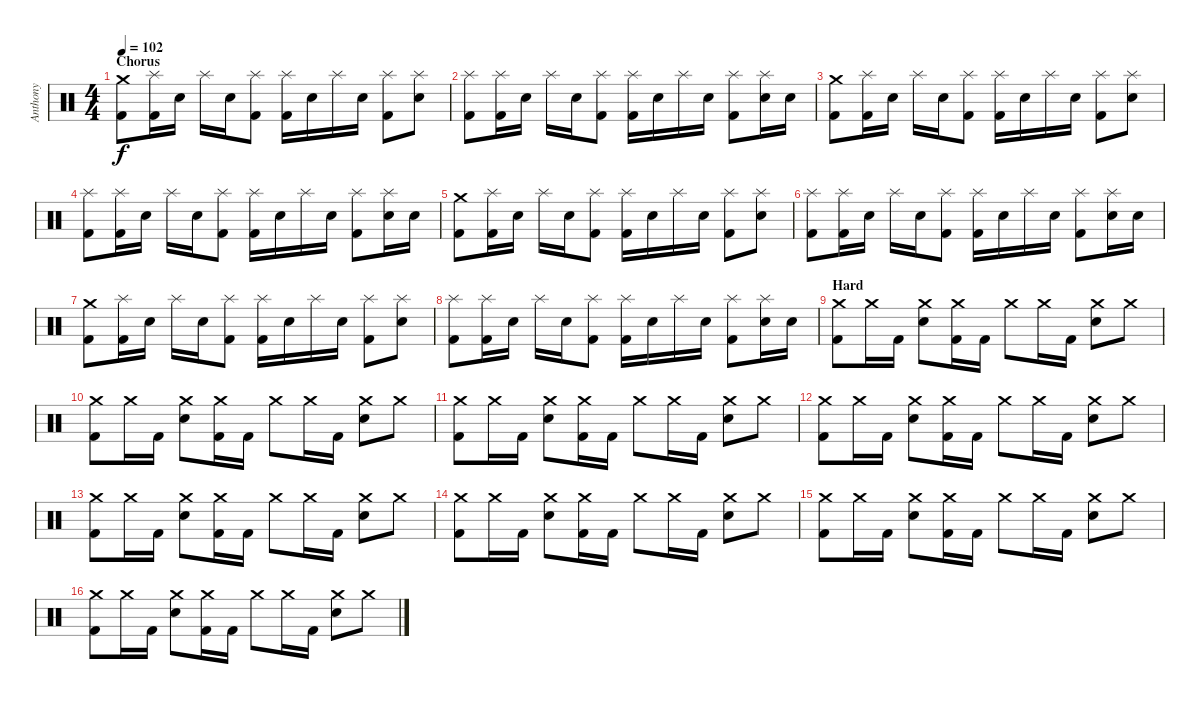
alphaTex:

\track ("Anthony" "Anthony") {instrument percussion}
\staff {score}
\articulation defaults
\ts (4 4)
\section ("" "Chorus")
\tempo 102
\clef neutral
\ks c
("Crash medium (hit)" "Kick (hit) 2").8{dy f} ("Splash (hit)" "Kick (hit) 2").16 "Electric Snare (hit)".16 "Splash (hit)".16 "Electric Snare (hit)".16 ("Splash (hit)" "Kick (hit) 2").8 ("Splash (hit)" "Kick (hit) 2").16 "Electric Snare (hit)".16 "Splash (hit)".16 "Electric Snare (hit)".16 ("Splash (hit)" "Kick (hit) 2").8 ("Splash (hit)" "Electric Snare (hit)").8 |
("Splash (hit)" "Kick (hit) 2").8 ("Splash (hit)" "Kick (hit) 2").16 "Electric Snare (hit)".16 "Splash (hit)".16 "Electric Snare (hit)".16 ("Splash (hit)" "Kick (hit) 2").8 ("Splash (hit)" "Kick (hit) 2").16 "Electric Snare (hit)".16 "Splash (hit)".16 "Electric Snare (hit)".16 ("Splash (hit)" "Kick (hit) 2").8 ("Splash (hit)" "Electric Snare (hit)").16 "Electric Snare (hit)".16 |
("Crash medium (hit)" "Kick (hit) 2").8 ("Splash (hit)" "Kick (hit) 2").16 "Electric Snare (hit)".16 "Splash (hit)".16 "Electric Snare (hit)".16 ("Splash (hit)" "Kick (hit) 2").8 ("Splash (hit)" "Kick (hit) 2").16 "Electric Snare (hit)".16 "Splash (hit)".16 "Electric Snare (hit)".16 ("Splash (hit)" "Kick (hit) 2").8 ("Splash (hit)" "Electric Snare (hit)").8 |
("Splash (hit)" "Kick (hit) 2").8 ("Splash (hit)" "Kick (hit) 2").16 "Electric Snare (hit)".16 "Splash (hit)".16 "Electric Snare (hit)".16 ("Splash (hit)" "Kick (hit) 2").8 ("Splash (hit)" "Kick (hit) 2").16 "Electric Snare (hit)".16 "Splash (hit)".16 "Electric Snare (hit)".16 ("Splash (hit)" "Kick (hit) 2").8 ("Splash (hit)" "Electric Snare (hit)").16 "Electric Snare (hit)".16 |
("Crash medium (hit)" "Kick (hit) 2").8 ("Splash (hit)" "Kick (hit) 2").16 "Electric Snare (hit)".16 "Splash (hit)".16 "Electric Snare (hit)".16 ("Splash (hit)" "Kick (hit) 2").8 ("Splash (hit)" "Kick (hit) 2").16 "Electric Snare (hit)".16 "Splash (hit)".16 "Electric Snare (hit)".16 ("Splash (hit)" "Kick (hit) 2").8 ("Splash (hit)" "Electric Snare (hit)").8 |
("Splash (hit)" "Kick (hit) 2").8 ("Splash (hit)" "Kick (hit) 2").16 "Electric Snare (hit)".16 "Splash (hit)".16 "Electric Snare (hit)".16 ("Splash (hit)" "Kick (hit) 2").8 ("Splash (hit)" "Kick (hit) 2").16 "Electric Snare (hit)".16 "Splash (hit)".16 "Electric Snare (hit)".16 ("Splash (hit)" "Kick (hit) 2").8 ("Splash (hit)" "Electric Snare (hit)").16 "Electric Snare (hit)".16 |
("Crash medium (hit)" "Kick (hit) 2").8 ("Splash (hit)" "Kick (hit) 2").16 "Electric Snare (hit)".16 "Splash (hit)".16 "Electric Snare (hit)".16 ("Splash (hit)" "Kick (hit) 2").8 ("Splash (hit)" "Kick (hit) 2").16 "Electric Snare (hit)".16 "Splash (hit)".16 "Electric Snare (hit)".16 ("Splash (hit)" "Kick (hit) 2").8 ("Splash (hit)" "Electric Snare (hit)").8 |
("Splash (hit)" "Kick (hit) 2").8 ("Splash (hit)" "Kick (hit) 2").16 "Electric Snare (hit)".16 "Splash (hit)".16 "Electric Snare (hit)".16 ("Splash (hit)" "Kick (hit) 2").8 ("Splash (hit)" "Kick (hit) 2").16 "Electric Snare (hit)".16 "Splash (hit)".16 "Electric Snare (hit)".16 ("Splash (hit)" "Kick (hit) 2").8 ("Splash (hit)" "Electric Snare (hit)").16 "Electric Snare (hit)".16 |
\section ("" "Hard")
("Crash medium (hit)" "Kick (hit) 2").8 "Crash medium (hit)".16 "Kick (hit) 2".16 ("Crash medium (hit)" "Electric Snare (hit)").8 ("Crash medium (hit)" "Kick (hit) 2").16 "Kick (hit) 2".16 "Crash medium (hit)".8 "Crash medium (hit)".16 "Kick (hit) 2".16 ("Crash medium (hit)" "Electric Snare (hit)").8 "Crash medium (hit)".8 |
("Crash medium (hit)" "Kick (hit) 2").8 "Crash medium (hit)".16 "Kick (hit) 2".16 ("Crash medium (hit)" "Electric Snare (hit)").8 ("Crash medium (hit)" "Kick (hit) 2").16 "Kick (hit) 2".16 "Crash medium (hit)".8 "Crash medium (hit)".16 "Kick (hit) 2".16 ("Crash medium (hit)" "Electric Snare (hit)").8 "Crash medium (hit)".8 |
("Crash medium (hit)" "Kick (hit) 2").8 "Crash medium (hit)".16 "Kick (hit) 2".16 ("Crash medium (hit)" "Electric Snare (hit)").8 ("Crash medium (hit)" "Kick (hit) 2").16 "Kick (hit) 2".16 "Crash medium (hit)".8 "Crash medium (hit)".16 "Kick (hit) 2".16 ("Crash medium (hit)" "Electric Snare (hit)").8 "Crash medium (hit)".8 |
("Crash medium (hit)" "Kick (hit) 2").8 "Crash medium (hit)".16 "Kick (hit) 2".16 ("Crash medium (hit)" "Electric Snare (hit)").8 ("Crash medium (hit)" "Kick (hit) 2").16 "Kick (hit) 2".16 "Crash medium (hit)".8 "Crash medium (hit)".16 "Kick (hit) 2".16 ("Crash medium (hit)" "Electric Snare (hit)").8 "Crash medium (hit)".8 |
("Crash medium (hit)" "Kick (hit) 2").8 "Crash medium (hit)".16 "Kick (hit) 2".16 ("Crash medium (hit)" "Electric Snare (hit)").8 ("Crash medium (hit)" "Kick (hit) 2").16 "Kick (hit) 2".16 "Crash medium (hit)".8 "Crash medium (hit)".16 "Kick (hit) 2".16 ("Crash medium (hit)" "Electric Snare (hit)").8 "Crash medium (hit)".8 |
("Crash medium (hit)" "Kick (hit) 2").8 "Crash medium (hit)".16 "Kick (hit) 2".16 ("Crash medium (hit)" "Electric Snare (hit)").8 ("Crash medium (hit)" "Kick (hit) 2").16 "Kick (hit) 2".16 "Crash medium (hit)".8 "Crash medium (hit)".16 "Kick (hit) 2".16 ("Crash medium (hit)" "Electric Snare (hit)").8 "Crash medium (hit)".8 |
("Crash medium (hit)" "Kick (hit) 2").8 "Crash medium (hit)".16 "Kick (hit) 2".16 ("Crash medium (hit)" "Electric Snare (hit)").8 ("Crash medium (hit)" "Kick (hit) 2").16 "Kick (hit) 2".16 "Crash medium (hit)".8 "Crash medium (hit)".16 "Kick (hit) 2".16 ("Crash medium (hit)" "Electric Snare (hit)").8 "Crash medium (hit)".8 |
("Crash medium (hit)" "Kick (hit) 2").8 "Crash medium (hit)".16 "Kick (hit) 2".16 ("Crash medium (hit)" "Electric Snare (hit)").8 ("Crash medium (hit)" "Kick (hit) 2").16 "Kick (hit) 2".16 "Crash medium (hit)".8 "Crash medium (hit)".16 "Kick (hit) 2".16 ("Crash medium (hit)" "Electric Snare (hit)").8 "Crash medium (hit)".8
